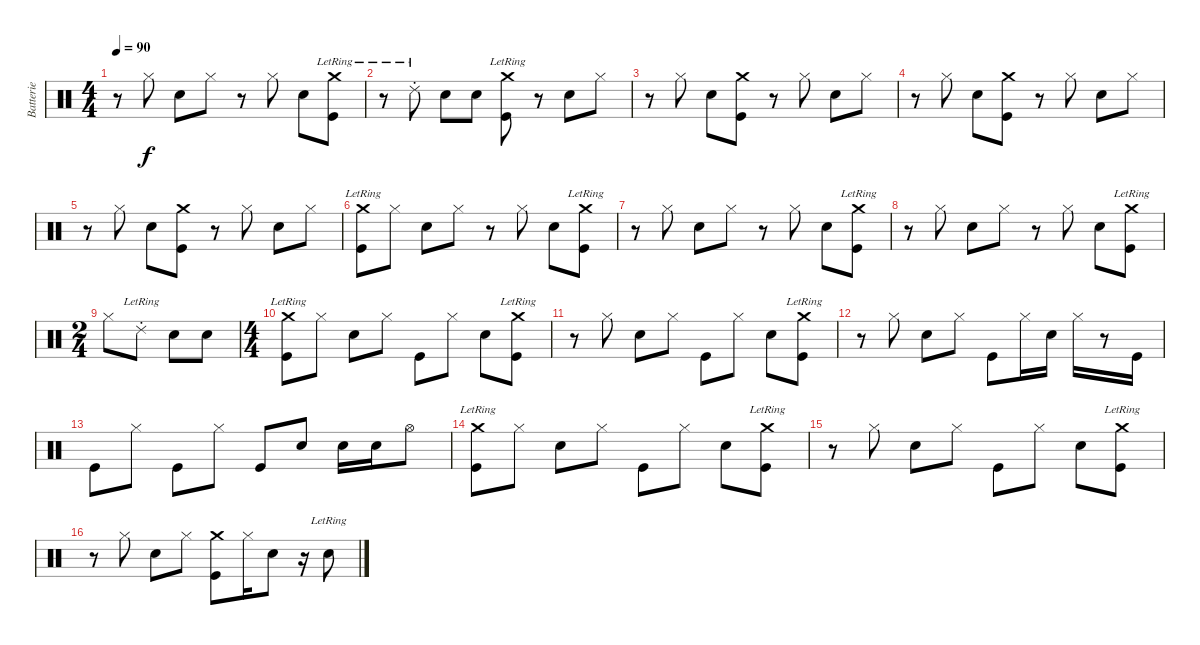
\track ("Batterie" "Batterie") {instrument percussion}
\staff {score}
\articulation defaults
\ts (4 4)
\tempo 90
\clef neutral
\ks c
r.8{dy f} "Hi-Hat (closed)".8 "Metronome (bell)".8 "Hi-Hat (closed)".8 r.8 "Hi-Hat (closed)".8 "Metronome (bell)".8 ("Crash medium (hit)"{lr} "Kick (hit)").8 |
r.8 "Ride (choke) 2"{lr}.8 "Metronome (bell)".8 "Metronome (bell)".8 ("Crash medium (hit)"{lr} "Kick (hit)").8 r.8 "Metronome (bell)".8 "Hi-Hat (closed)".8 |
r.8 "Hi-Hat (closed)".8 "Metronome (bell)".8 ("Crash medium (hit)" "Kick (hit)").8 r.8 "Hi-Hat (closed)".8 "Metronome (bell)".8 "Hi-Hat (closed)".8 |
r.8 "Hi-Hat (closed)".8 "Metronome (bell)".8 ("Crash medium (hit)" "Kick (hit)").8 r.8 "Hi-Hat (closed)".8 "Metronome (bell)".8 "Hi-Hat (closed)".8 |
r.8 "Hi-Hat (closed)".8 "Metronome (bell)".8 ("Crash medium (hit)" "Kick (hit)").8 r.8 "Hi-Hat (closed)".8 "Metronome (bell)".8 "Hi-Hat (closed)".8 |
("Crash medium (hit)"{lr} "Kick (hit)").8 "Hi-Hat (closed)".8 "Metronome (bell)".8 "Hi-Hat (closed)".8 r.8 "Hi-Hat (closed)".8 "Metronome (bell)".8 ("Crash medium (hit)"{lr} "Kick (hit)").8 |
r.8 "Hi-Hat (closed)".8 "Metronome (bell)".8 "Hi-Hat (closed)".8 r.8 "Hi-Hat (closed)".8 "Metronome (bell)".8 ("Crash medium (hit)"{lr} "Kick (hit)").8 |
r.8 "Hi-Hat (closed)".8 "Metronome (bell)".8 "Hi-Hat (closed)".8 r.8 "Hi-Hat (closed)".8 "Metronome (bell)".8 ("Crash medium (hit)"{lr} "Kick (hit)").8 |
\ts (2 4)
"Hi-Hat (closed)".8 "Ride (choke) 2"{lr}.8 "Metronome (bell)".8 "Metronome (bell)".8 |
\ts (4 4)
("Crash medium (hit)"{lr} "Kick (hit)").8 "Hi-Hat (closed)".8 "Metronome (bell)".8 "Hi-Hat (closed)".8 "Kick (hit)".8 "Hi-Hat (closed)".8 "Metronome (bell)".8 ("Crash medium (hit)"{lr} "Kick (hit)").8 |
r.8 "Hi-Hat (closed)".8 "Metronome (bell)".8 "Hi-Hat (closed)".8 "Kick (hit)".8 "Hi-Hat (closed)".8 "Metronome (bell)".8 ("Crash medium (hit)"{lr} "Kick (hit)").8 |
r.8 "Hi-Hat (closed)".8 "Metronome (bell)".8 "Hi-Hat (closed)".8 "Kick (hit)".8 "Hi-Hat (closed)".16 "Metronome (bell)".16 "Hi-Hat (closed)".16 r.8 "Kick (hit)".16 |
"Kick (hit)".8 "Hi-Hat (closed)".8 "Kick (hit)".8 "Hi-Hat (closed)".8 "Kick (hit)".8 "Metronome (bell)".8 "Metronome (bell)".16 "Metronome (bell)".16 "Hi-Hat (open)".8 |
("Crash medium (hit)"{lr} "Kick (hit)").8 "Hi-Hat (closed)".8 "Metronome (bell)".8 "Hi-Hat (closed)".8 "Kick (hit)".8 "Hi-Hat (closed)".8 "Metronome (bell)".8 ("Crash medium (hit)"{lr} "Kick (hit)").8 |
r.8 "Hi-Hat (closed)".8 "Metronome (bell)".8 "Hi-Hat (closed)".8 "Kick (hit)".8 "Hi-Hat (closed)".8 "Metronome (bell)".8 ("Crash medium (hit)"{lr} "Kick (hit)").8 |
r.8 "Hi-Hat (closed)".8 "Metronome (bell)".8 "Hi-Hat (closed)".8 ("Crash medium (hit)" "Kick (hit)").8 "Hi-Hat (closed)".16 "Metronome (bell)".8 r.16 "Metronome (bell)"{lr}.8
